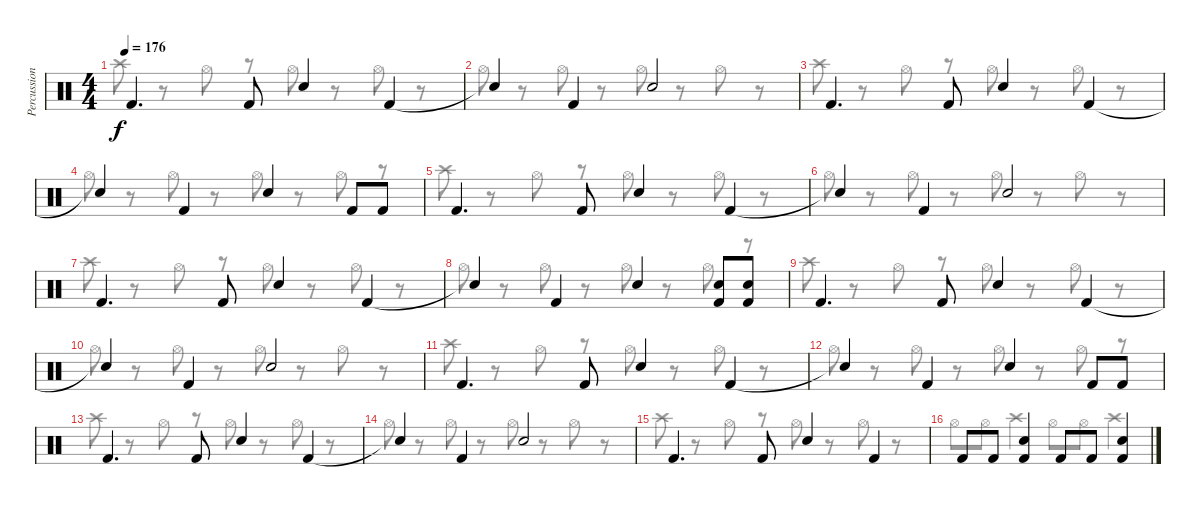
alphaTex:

\track ("Percussion" "Percussion") {instrument percussion}
\staff {score}
\articulation defaults
\voice
\ts (4 4)
\tempo 176
\clef neutral
\ks c "Kick (hit) 2".4{d dy f} "Kick (hit) 2".8 "Electric Snare (hit)".4 "Kick (hit) 2".4
|
"Snare (hit)"{t}.4 "Kick (hit) 2".4 "Electric Snare (hit)".2 |
"Kick (hit) 2".4{d} "Kick (hit) 2".8 "Electric Snare (hit)".4 "Kick (hit) 2".4 |
"Snare (hit)"{t}.4 "Kick (hit) 2".4 "Electric Snare (hit)".4 "Kick (hit) 2".8 "Kick (hit) 2".8 |
"Kick (hit) 2".4{d} "Kick (hit) 2".8 "Electric Snare (hit)".4 "Kick (hit) 2".4 |
"Snare (hit)"{t}.4 "Kick (hit) 2".4 "Electric Snare (hit)".2 |
"Kick (hit) 2".4{d} "Kick (hit) 2".8 "Electric Snare (hit)".4 "Kick (hit) 2".4 |
"Snare (hit)"{t}.4 "Kick (hit) 2".4 "Electric Snare (hit)".4 ("Electric Snare (hit)" "Kick (hit) 2").8 ("Electric Snare (hit)" "Kick (hit) 2").8 |
"Kick (hit) 2".4{d} "Kick (hit) 2".8 "Electric Snare (hit)".4 "Kick (hit) 2".4 |
"Snare (hit)"{t}.4 "Kick (hit) 2".4 "Electric Snare (hit)".2 |
"Kick (hit) 2".4{d} "Kick (hit) 2".8 "Electric Snare (hit)".4 "Kick (hit) 2".4 |
"Snare (hit)"{t}.4 "Kick (hit) 2".4 "Electric Snare (hit)".4 "Kick (hit) 2".8 "Kick (hit) 2".8 |
"Kick (hit) 2".4{d} "Kick (hit) 2".8 "Electric Snare (hit)".4 "Kick (hit) 2".4 |
"Snare (hit)"{t}.4 "Kick (hit) 2".4 "Electric Snare (hit)".2 |
"Kick (hit) 2".4{d} "Kick (hit) 2".8 "Electric Snare (hit)".4 "Kick (hit) 2".4 |
"Kick (hit) 2".8 "Kick (hit) 2".8 ("Electric Snare (hit)" "Kick (hit) 2").4 "Kick (hit) 2".8 "Kick (hit) 2".8 ("Electric Snare (hit)" "Kick (hit) 2").4
\voice
\clef neutral
\ottava regular
\simile none
\ks c "Crash high (hit)".8{dy f}
r.8 "Hi-Hat (open)".8 r.8 "Hi-Hat (open)".8 r.8 "Hi-Hat (open)".8 r.8 |
"Hi-Hat (open)".8 r.8 "Hi-Hat (open)".8 r.8 "Hi-Hat (open)".8 r.8 "Hi-Hat (open)".8 r.8 |
"Crash high (hit)".8 r.8 "Hi-Hat (open)".8 r.8 "Hi-Hat (open)".8 r.8 "Hi-Hat (open)".8 r.8 |
"Hi-Hat (open)".8 r.8 "Hi-Hat (open)".8 r.8 "Hi-Hat (open)".8 r.8 "Hi-Hat (open)".8 r.8 |
"Crash high (hit)".8 r.8 "Hi-Hat (open)".8 r.8 "Hi-Hat (open)".8 r.8 "Hi-Hat (open)".8 r.8 |
"Hi-Hat (open)".8 r.8 "Hi-Hat (open)".8 r.8 "Hi-Hat (open)".8 r.8 "Hi-Hat (open)".8 r.8 |
"Crash high (hit)".8 r.8 "Hi-Hat (open)".8 r.8 "Hi-Hat (open)".8 r.8 "Hi-Hat (open)".8 r.8 |
"Hi-Hat (open)".8 r.8 "Hi-Hat (open)".8 r.8 "Hi-Hat (open)".8 r.8 "Hi-Hat (open)".8 r.8 |
"Crash high (hit)".8 r.8 "Hi-Hat (open)".8 r.8 "Hi-Hat (open)".8 r.8 "Hi-Hat (open)".8 r.8 |
"Hi-Hat (open)".8 r.8 "Hi-Hat (open)".8 r.8 "Hi-Hat (open)".8 r.8 "Hi-Hat (open)".8 r.8 |
"Crash high (hit)".8 r.8 "Hi-Hat (open)".8 r.8 "Hi-Hat (open)".8 r.8 "Hi-Hat (open)".8 r.8 |
"Hi-Hat (open)".8 r.8 "Hi-Hat (open)".8 r.8 "Hi-Hat (open)".8 r.8 "Hi-Hat (open)".8 r.8 |
"Crash high (hit)".8 r.8 "Hi-Hat (open)".8 r.8 "Hi-Hat (open)".8 r.8 "Hi-Hat (open)".8 r.8 |
"Hi-Hat (open)".8 r.8 "Hi-Hat (open)".8 r.8 "Hi-Hat (open)".8 r.8 "Hi-Hat (open)".8 r.8 |
"Crash high (hit)".8 r.8 "Hi-Hat (open)".8 r.8 "Hi-Hat (open)".8 r.8 "Hi-Hat (open)".8 r.8 |
"Hi-Hat (open)".8 "Hi-Hat (open)".8 "Crash high (hit)".4 "Hi-Hat (open)".8 "Hi-Hat (open)".8 "Crash high (hit)".4
